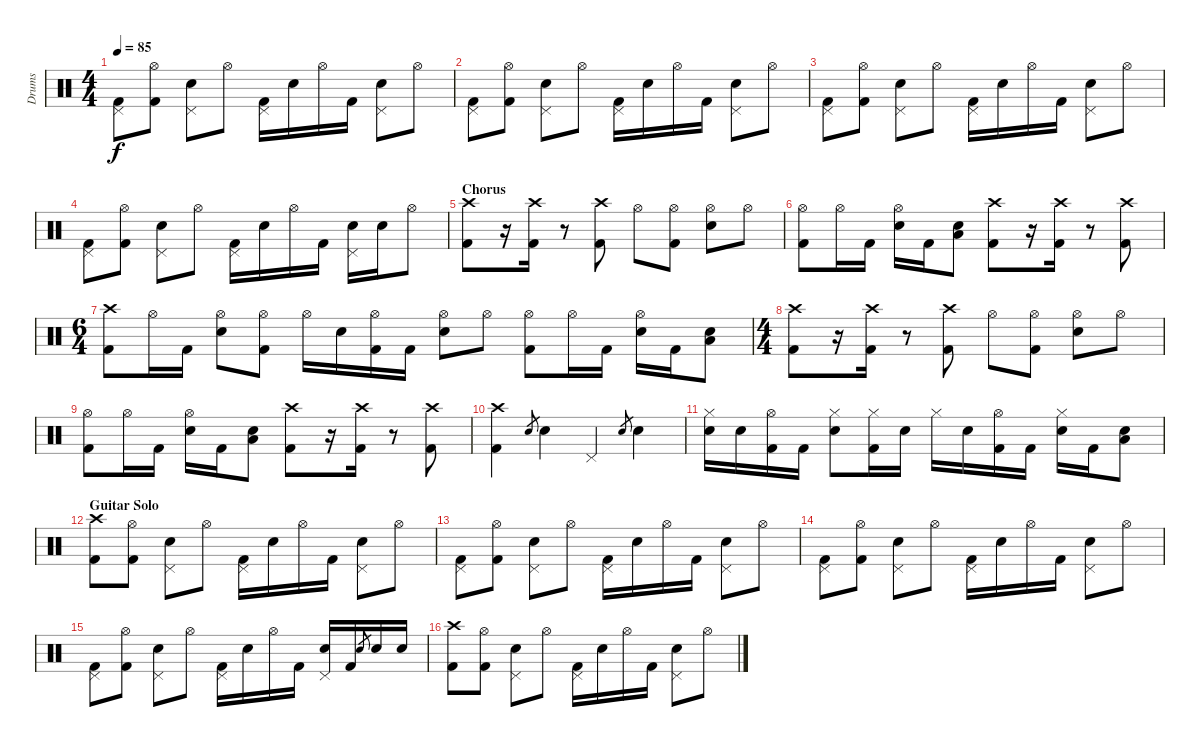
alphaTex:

\track ("Drums" "Drums") {instrument percussion}
\staff {score}
\articulation defaults
\ts (4 4)
\tempo 85
\clef neutral
\ks c
("Pedal Hi-Hat (hit)" "Kick (hit) 2").8{dy f} ("Hi-Hat (open)" "Kick (hit) 2").8 ("Electric Snare (hit)" "Pedal Hi-Hat (hit)").8 "Hi-Hat (open)".8 ("Pedal Hi-Hat (hit)" "Kick (hit) 2").16 "Electric Snare (hit)".16 "Hi-Hat (open)".16 "Kick (hit) 2".16 ("Electric Snare (hit)" "Pedal Hi-Hat (hit)").8 "Hi-Hat (open)".8 |
("Pedal Hi-Hat (hit)" "Kick (hit) 2").8 ("Hi-Hat (open)" "Kick (hit) 2").8 ("Electric Snare (hit)" "Pedal Hi-Hat (hit)").8 "Hi-Hat (open)".8 ("Pedal Hi-Hat (hit)" "Kick (hit) 2").16 "Electric Snare (hit)".16 "Hi-Hat (open)".16 "Kick (hit) 2".16 ("Electric Snare (hit)" "Pedal Hi-Hat (hit)").8 "Hi-Hat (open)".8 |
("Pedal Hi-Hat (hit)" "Kick (hit) 2").8 ("Hi-Hat (open)" "Kick (hit) 2").8 ("Electric Snare (hit)" "Pedal Hi-Hat (hit)").8 "Hi-Hat (open)".8 ("Pedal Hi-Hat (hit)" "Kick (hit) 2").16 "Electric Snare (hit)".16 "Hi-Hat (open)".16 "Kick (hit) 2".16 ("Electric Snare (hit)" "Pedal Hi-Hat (hit)").8 "Hi-Hat (open)".8 |
("Pedal Hi-Hat (hit)" "Kick (hit) 2").8 ("Hi-Hat (open)" "Kick (hit) 2").8 ("Electric Snare (hit)" "Pedal Hi-Hat (hit)").8 "Hi-Hat (open)".8 ("Pedal Hi-Hat (hit)" "Kick (hit) 2").16 "Electric Snare (hit)".16 "Hi-Hat (open)".16 "Kick (hit) 2".16 ("Electric Snare (hit)" "Pedal Hi-Hat (hit)").16 "Electric Snare (hit)".16 "Hi-Hat (open)".8 |
\section ("" "Chorus")
("Crash high (hit)" "Kick (hit) 2").8 r.16 ("Crash high (hit)" "Kick (hit) 2").16 r.8 ("Crash high (hit)" "Kick (hit) 2").8 "Hi-Hat (open)".8 ("Hi-Hat (open)" "Kick (hit) 2").8 ("Hi-Hat (open)" "Electric Snare (hit)").8 "Hi-Hat (open)".8 |
("Hi-Hat (open)" "Kick (hit) 2").8 "Hi-Hat (open)".16 "Kick (hit) 2".16 ("Hi-Hat (open)" "Electric Snare (hit)").16 "Kick (hit) 2".16 ("Electric Snare (hit)" "Low Floor Tom (hit)").8 ("Crash high (hit)" "Kick (hit) 2").8 r.16 ("Crash high (hit)" "Kick (hit) 2").16 r.8 ("Crash high (hit)" "Kick (hit) 2").8 |
\ts (6 4)
("Crash high (hit)" "Kick (hit) 2").8 "Hi-Hat (open)".16 "Kick (hit) 2".16 ("Hi-Hat (open)" "Electric Snare (hit)").8 ("Hi-Hat (open)" "Kick (hit) 2").8 "Hi-Hat (open)".16 "Electric Snare (hit)".16 ("Hi-Hat (open)" "Kick (hit) 2").16 "Kick (hit) 2".16 ("Hi-Hat (open)" "Electric Snare (hit)").8 "Hi-Hat (open)".8 ("Hi-Hat (open)" "Kick (hit) 2").8 "Hi-Hat (open)".16 "Kick (hit) 2".16 ("Hi-Hat (open)" "Electric Snare (hit)").16 "Kick (hit) 2".16 ("Electric Snare (hit)" "Low Floor Tom (hit)").8 |
\ts (4 4)
("Crash high (hit)" "Kick (hit) 2").8 r.16 ("Crash high (hit)" "Kick (hit) 2").16 r.8 ("Crash high (hit)" "Kick (hit) 2").8 "Hi-Hat (open)".8 ("Hi-Hat (open)" "Kick (hit) 2").8 ("Hi-Hat (open)" "Electric Snare (hit)").8 "Hi-Hat (open)".8 |
("Hi-Hat (open)" "Kick (hit) 2").8 "Hi-Hat (open)".16 "Kick (hit) 2".16 ("Hi-Hat (open)" "Electric Snare (hit)").16 "Kick (hit) 2".16 ("Electric Snare (hit)" "Low Floor Tom (hit)").8 ("Crash high (hit)" "Kick (hit) 2").8 r.16 ("Crash high (hit)" "Kick (hit) 2").16 r.8 ("Crash high (hit)" "Kick (hit) 2").8 |
("Crash high (hit)" "Kick (hit) 2").4 "Electric Snare (hit)".8{gr} "Electric Snare (hit)".4 "Pedal Hi-Hat (hit)".4 "Electric Snare (hit)".8{gr} "Electric Snare (hit)".4 |
("Hi-Hat (closed)" "Electric Snare (hit)").16 "Electric Snare (hit)".16 ("Hi-Hat (open)" "Kick (hit) 2").16 "Kick (hit) 2".16 ("Hi-Hat (closed)" "Electric Snare (hit)").8 ("Hi-Hat (closed)" "Kick (hit) 2").16 "Electric Snare (hit)".16 "Hi-Hat (closed)".16 "Electric Snare (hit)".16 ("Hi-Hat (open)" "Kick (hit) 2").16 "Kick (hit) 2".16 ("Hi-Hat (closed)" "Electric Snare (hit)").16 "Kick (hit) 2".16 ("Electric Snare (hit)" "Low Floor Tom (hit)").8 |
\section ("" "Guitar Solo")
("Crash high (hit)" "Kick (hit) 2").8 ("Hi-Hat (open)" "Kick (hit) 2").8 ("Electric Snare (hit)" "Pedal Hi-Hat (hit)").8 "Hi-Hat (open)".8 ("Pedal Hi-Hat (hit)" "Kick (hit) 2").16 "Electric Snare (hit)".16 "Hi-Hat (open)".16 "Kick (hit) 2".16 ("Electric Snare (hit)" "Pedal Hi-Hat (hit)").8 "Hi-Hat (open)".8 |
("Pedal Hi-Hat (hit)" "Kick (hit) 2").8 ("Hi-Hat (open)" "Kick (hit) 2").8 ("Electric Snare (hit)" "Pedal Hi-Hat (hit)").8 "Hi-Hat (open)".8 ("Pedal Hi-Hat (hit)" "Kick (hit) 2").16 "Electric Snare (hit)".16 "Hi-Hat (open)".16 "Kick (hit) 2".16 ("Electric Snare (hit)" "Pedal Hi-Hat (hit)").8 "Hi-Hat (open)".8 |
("Pedal Hi-Hat (hit)" "Kick (hit) 2").8 ("Hi-Hat (open)" "Kick (hit) 2").8 ("Electric Snare (hit)" "Pedal Hi-Hat (hit)").8 "Hi-Hat (open)".8 ("Pedal Hi-Hat (hit)" "Kick (hit) 2").16 "Electric Snare (hit)".16 "Hi-Hat (open)".16 "Kick (hit) 2".16 ("Electric Snare (hit)" "Pedal Hi-Hat (hit)").8 "Hi-Hat (open)".8 |
("Pedal Hi-Hat (hit)" "Kick (hit) 2").8 ("Hi-Hat (open)" "Kick (hit) 2").8 ("Electric Snare (hit)" "Pedal Hi-Hat (hit)").8 "Hi-Hat (open)".8 ("Pedal Hi-Hat (hit)" "Kick (hit) 2").16 "Electric Snare (hit)".16 "Hi-Hat (open)".16 "Kick (hit) 2".16 ("Electric Snare (hit)" "Pedal Hi-Hat (hit)").16 "Kick (hit) 2".16 "Electric Snare (hit)".8{gr} "Electric Snare (hit)".16 "Electric Snare (hit)".16 |
("Crash high (hit)" "Kick (hit) 2").8 ("Hi-Hat (open)" "Kick (hit) 2").8 ("Electric Snare (hit)" "Pedal Hi-Hat (hit)").8 "Hi-Hat (open)".8 ("Pedal Hi-Hat (hit)" "Kick (hit) 2").16 "Electric Snare (hit)".16 "Hi-Hat (open)".16 "Kick (hit) 2".16 ("Electric Snare (hit)" "Pedal Hi-Hat (hit)").8 "Hi-Hat (open)".8
